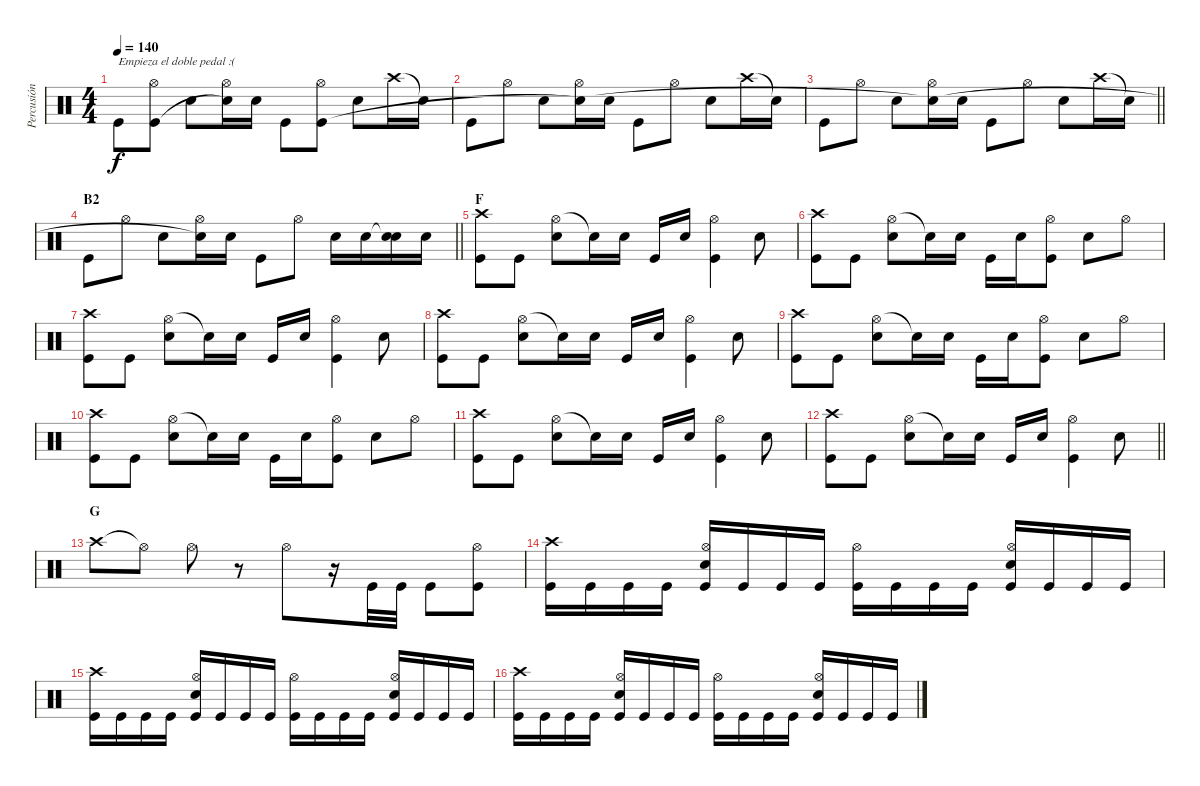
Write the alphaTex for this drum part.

\track ("Percusión" "Percusión") {instrument percussion}
\staff {score}
\articulation defaults
\ts (4 4)
\tempo 140
\clef neutral
\ks c "Kick (hit)".8{txt "Empieza el doble pedal :(" dy f}
("Hi-Hat (open)" "Kick (hit)").8 "Electric Snare (hit)".8 ("Hi-Hat (open)" "Electric Snare (hit)"{t}).16 "Electric Snare (hit)".16 "Kick (hit)".8 ("Hi-Hat (open)" "Kick (hit)").8 "Electric Snare (hit)".8 "Crash high (hit)".16 "Snare (hit)"{t}.16 |
"Kick (hit)".8 "Hi-Hat (open)".8 "Electric Snare (hit)".8 ("Hi-Hat (open)" "Electric Snare (hit)"{t}).16 "Electric Snare (hit)".16 "Kick (hit)".8 "Hi-Hat (open)".8 "Electric Snare (hit)".8 "Crash high (hit)".16 "Snare (hit)"{t}.16 |
\barLineRight lightlight "Kick (hit)".8 "Hi-Hat (open)".8 "Electric Snare (hit)".8
("Hi-Hat (open)" "Electric Snare (hit)"{t}).16 "Electric Snare (hit)".16 "Kick (hit)".8 "Hi-Hat (open)".8 "Electric Snare (hit)".8 "Crash high (hit)".16 "Snare (hit)"{t}.16 |
\section ("" "B2")
\barLineRight lightlight "Kick (hit)".8 "Hi-Hat (open)".8 "Electric Snare (hit)".8
("Hi-Hat (open)" "Electric Snare (hit)"{t}).16 "Electric Snare (hit)".16 "Kick (hit)".8 "Hi-Hat (open)".8 "Electric Snare (hit)".16 "Electric Snare (hit)".16 ("Snare (hit)"{t} "Electric Snare (hit)").16 "Electric Snare (hit)".16 |
\section ("" "F")
("Crash high (hit)" "Kick (hit)").8 "Kick (hit)".8 ("Hi-Hat (open)" "Electric Snare (hit)").8 "Electric Snare (hit)"{t}.16 "Electric Snare (hit)".16 "Kick (hit)".16 "Electric Snare (hit)".16 ("Hi-Hat (open)" "Kick (hit)").4 "Electric Snare (hit)".8 |
("Crash high (hit)" "Kick (hit)").8 "Kick (hit)".8 ("Hi-Hat (open)" "Electric Snare (hit)").8 "Electric Snare (hit)"{t}.16 "Electric Snare (hit)".16 "Kick (hit)".16 "Electric Snare (hit)".16 ("Hi-Hat (open)" "Kick (hit)").8 "Electric Snare (hit)".8 "Hi-Hat (open)".8 |
("Crash high (hit)" "Kick (hit)").8 "Kick (hit)".8 ("Hi-Hat (open)" "Electric Snare (hit)").8 "Electric Snare (hit)"{t}.16 "Electric Snare (hit)".16 "Kick (hit)".16 "Electric Snare (hit)".16 ("Hi-Hat (open)" "Kick (hit)").4 "Electric Snare (hit)".8 |
("Crash high (hit)" "Kick (hit)").8 "Kick (hit)".8 ("Hi-Hat (open)" "Electric Snare (hit)").8 "Electric Snare (hit)"{t}.16 "Electric Snare (hit)".16 "Kick (hit)".16 "Electric Snare (hit)".16 ("Hi-Hat (open)" "Kick (hit)").4 "Electric Snare (hit)".8 |
("Crash high (hit)" "Kick (hit)").8 "Kick (hit)".8 ("Hi-Hat (open)" "Electric Snare (hit)").8 "Electric Snare (hit)"{t}.16 "Electric Snare (hit)".16 "Kick (hit)".16 "Electric Snare (hit)".16 ("Hi-Hat (open)" "Kick (hit)").8 "Electric Snare (hit)".8 "Hi-Hat (open)".8 |
("Crash high (hit)" "Kick (hit)").8 "Kick (hit)".8 ("Hi-Hat (open)" "Electric Snare (hit)").8 "Electric Snare (hit)"{t}.16 "Electric Snare (hit)".16 "Kick (hit)".16 "Electric Snare (hit)".16 ("Hi-Hat (open)" "Kick (hit)").8 "Electric Snare (hit)".8 "Hi-Hat (open)".8 |
("Crash high (hit)" "Kick (hit)").8 "Kick (hit)".8 ("Hi-Hat (open)" "Electric Snare (hit)").8 "Electric Snare (hit)"{t}.16 "Electric Snare (hit)".16 "Kick (hit)".16 "Electric Snare (hit)".16 ("Hi-Hat (open)" "Kick (hit)").4 "Electric Snare (hit)".8 |
\barLineRight lightlight
("Crash high (hit)" "Kick (hit)").8 "Kick (hit)".8 ("Hi-Hat (open)" "Electric Snare (hit)").8 "Electric Snare (hit)"{t}.16 "Electric Snare (hit)".16 "Kick (hit)".16 "Electric Snare (hit)".16 ("Hi-Hat (open)" "Kick (hit)").4 "Electric Snare (hit)".8 |
\section ("" "G")
"Crash high (hit)".8 "Hi-Hat (open)"{t}.8 "Hi-Hat (open)".8 r.8 "Hi-Hat (open)".8 r.16 "Kick (hit)".32 "Kick (hit)".32 "Kick (hit)".8 ("Hi-Hat (open)" "Kick (hit)").8 |
("Crash high (hit)" "Kick (hit)").16 "Kick (hit)".16 "Kick (hit)".16 "Kick (hit)".16 ("Hi-Hat (open)" "Electric Snare (hit)" "Kick (hit)").16 "Kick (hit)".16 "Kick (hit)".16 "Kick (hit)".16 ("Hi-Hat (open)" "Kick (hit)").16 "Kick (hit)".16 "Kick (hit)".16 "Kick (hit)".16 ("Hi-Hat (open)" "Electric Snare (hit)" "Kick (hit)").16 "Kick (hit)".16 "Kick (hit)".16 "Kick (hit)".16 |
("Crash high (hit)" "Kick (hit)").16 "Kick (hit)".16 "Kick (hit)".16 "Kick (hit)".16 ("Hi-Hat (open)" "Electric Snare (hit)" "Kick (hit)").16 "Kick (hit)".16 "Kick (hit)".16 "Kick (hit)".16 ("Hi-Hat (open)" "Kick (hit)").16 "Kick (hit)".16 "Kick (hit)".16 "Kick (hit)".16 ("Hi-Hat (open)" "Electric Snare (hit)" "Kick (hit)").16 "Kick (hit)".16 "Kick (hit)".16 "Kick (hit)".16 |
("Crash high (hit)" "Kick (hit)").16 "Kick (hit)".16 "Kick (hit)".16 "Kick (hit)".16 ("Hi-Hat (open)" "Electric Snare (hit)" "Kick (hit)").16 "Kick (hit)".16 "Kick (hit)".16 "Kick (hit)".16 ("Hi-Hat (open)" "Kick (hit)").16 "Kick (hit)".16 "Kick (hit)".16 "Kick (hit)".16 ("Hi-Hat (open)" "Electric Snare (hit)" "Kick (hit)").16 "Kick (hit)".16 "Kick (hit)".16 "Kick (hit)".16
